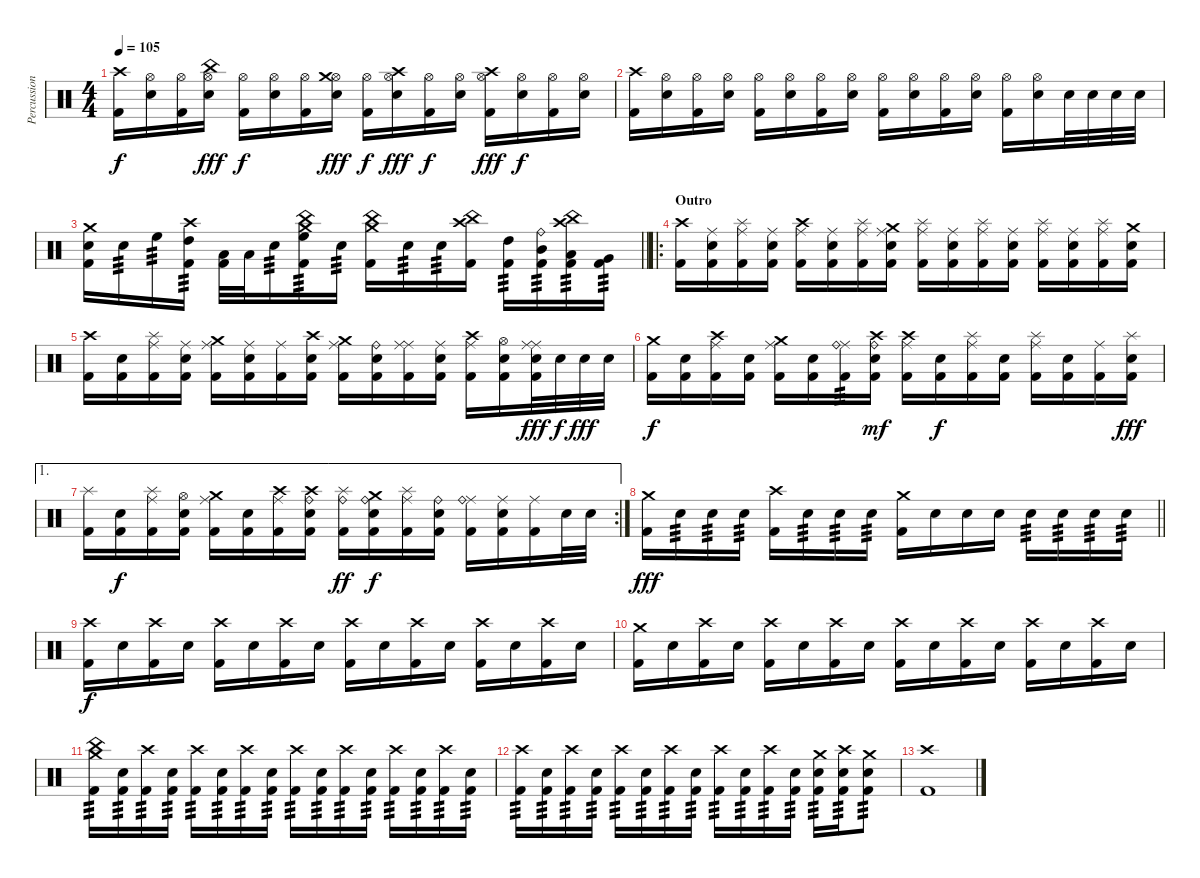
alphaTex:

\track ("Percussions" "Percussion") {instrument percussion}
\staff {score}
\articulation defaults
\ts (4 4)
\tempo 105
\clef neutral
\ks c
("Crash high (hit)" "Kick (hit) 2").16{dy f} ("Hi-Hat (open)" "Electric Snare (hit)").16 ("Hi-Hat (open)" "Kick (hit) 2").16 ("Hi-Hat (open)" "China (hit)" "Electric Snare (hit)").16{dy fff} ("Hi-Hat (open)" "Kick (hit) 2").16{dy f} ("Hi-Hat (open)" "Electric Snare (hit)").16 ("Hi-Hat (open)" "Kick (hit) 2").16 ("Hi-Hat (open)" "Crash medium (hit)" "Electric Snare (hit)").16{dy fff} ("Hi-Hat (open)" "Kick (hit) 2").16{dy f} ("Hi-Hat (open)" "Crash high (hit)" "Electric Snare (hit)").16{dy fff} ("Hi-Hat (open)" "Kick (hit) 2").16{dy f} ("Hi-Hat (open)" "Electric Snare (hit)").16 ("Hi-Hat (open)" "Crash high (hit)" "Kick (hit) 2").16{dy fff} ("Hi-Hat (open)" "Electric Snare (hit)").16{dy f} ("Hi-Hat (open)" "Kick (hit) 2").16 ("Hi-Hat (open)" "Electric Snare (hit)").16 |
("Crash high (hit)" "Kick (hit) 2").16 ("Hi-Hat (open)" "Electric Snare (hit)").16 ("Hi-Hat (open)" "Kick (hit) 2").16 ("Hi-Hat (open)" "Electric Snare (hit)").16 ("Hi-Hat (open)" "Kick (hit) 2").16 ("Hi-Hat (open)" "Electric Snare (hit)").16 ("Hi-Hat (open)" "Kick (hit) 2").16 ("Hi-Hat (open)" "Electric Snare (hit)").16 ("Hi-Hat (open)" "Kick (hit) 2").16 ("Hi-Hat (open)" "Electric Snare (hit)").16 ("Hi-Hat (open)" "Kick (hit) 2").16 ("Hi-Hat (open)" "Electric Snare (hit)").16 ("Hi-Hat (open)" "Kick (hit) 2").16 ("Hi-Hat (open)" "Electric Snare (hit)").16 "Electric Snare (hit)".32 "Electric Snare (hit)".32 "Electric Snare (hit)".32 "Electric Snare (hit)".32 |
\barLineRight lightlight
("Crash medium (hit)" "Electric Snare (hit)" "Kick (hit) 2").16 "Electric Snare (hit)".16{tp 3} "High Floor Tom (hit)".16{tp 3} ("Crash high (hit)" "High Tom (hit)" "Kick (hit) 2").16{tp 3} ("Low Tom (hit)" "Kick (hit) 2").32 "Low Tom (hit)".32 "Electric Snare (hit)".16{tp 3} ("Crash medium (hit)" "China (hit)" "High Floor Tom (hit)" "Kick (hit) 2").16{tp 3} "Electric Snare (hit)".16{tp 3} ("Crash medium (hit)" "China (hit)" "Kick (hit) 2").16 "Electric Snare (hit)".16{tp 3} "Electric Snare (hit)".16{tp 3} ("Crash high (hit)" "China (hit)" "Kick (hit) 2").16 ("High Tom (hit)" "Kick (hit) 2").16{tp 3} ("Ride (bell)" "Mid Tom (hit)" "Kick (hit) 2").16{tp 3} ("Crash high (hit)" "China (hit)" "Low Tom (hit)" "Kick (hit) 2").16{tp 3} ("Very Low Tom (hit)" "Kick (hit) 2").16{tp 3} |
\ro
\section ("" "Outro")
("Crash high (hit)" "Kick (hit) 2").16 ("Ride (middle)" "Electric Snare (hit)" "Kick (hit) 2").16 ("Ride (middle)" "Splash (hit)" "Kick (hit) 2").16 ("Ride (middle)" "Electric Snare (hit)" "Kick (hit) 2").16 ("Ride (middle)" "Crash high (hit)" "Kick (hit) 2").16 ("Ride (middle)" "Electric Snare (hit)" "Kick (hit) 2").16 ("Ride (middle)" "Splash (hit)" "Kick (hit) 2").16 ("Ride (middle)" "Crash medium (hit)" "Electric Snare (hit)" "Kick (hit) 2").16 ("Ride (middle)" "Splash (hit)" "Kick (hit) 2").16 ("Ride (middle)" "Electric Snare (hit)" "Kick (hit) 2").16 ("Ride (middle)" "Splash (hit)" "Kick (hit) 2").16 ("Ride (middle)" "Electric Snare (hit)" "Kick (hit) 2").16 ("Ride (middle)" "Splash (hit)" "Kick (hit) 2").16 ("Ride (middle)" "Electric Snare (hit)" "Kick (hit) 2").16 ("Ride (middle)" "Splash (hit)" "Kick (hit) 2").16 ("Crash medium (hit)" "Electric Snare (hit)" "Kick (hit) 2").16 |
("Crash high (hit)" "Kick (hit) 2").16 ("Electric Snare (hit)" "Kick (hit) 2").16 ("Ride (middle)" "Splash (hit)" "Kick (hit) 2").16 ("Ride (middle)" "Electric Snare (hit)" "Kick (hit) 2").16 ("Crash medium (hit)" "Ride (middle)" "Kick (hit) 2").16 ("Ride (middle)" "Electric Snare (hit)" "Kick (hit) 2").16 ("Ride (middle)" "Kick (hit) 2").16 ("Crash high (hit)" "Electric Snare (hit)" "Kick (hit) 2").16 ("Crash medium (hit)" "Ride (middle)" "Kick (hit) 2").16 ("Ride (bell)" "Electric Snare (hit)" "Kick (hit) 2").16 ("Ride (middle)" "Ride (middle)" "Kick (hit) 2").16 ("Ride (middle)" "Electric Snare (hit)" "Kick (hit) 2").16 ("Crash high (hit)" "Ride (middle)" "Kick (hit) 2").16 ("Hi-Hat (open)" "Electric Snare (hit)" "Kick (hit) 2").16 ("Ride (middle)" "Ride (middle)" "Electric Snare (hit)" "Kick (hit) 2").32{dy fff} "Electric Snare (hit)".32{dy f} "Electric Snare (hit)".32{dy fff} "Electric Snare (hit)".32 |
("Crash medium (hit)" "Kick (hit) 2").16{dy f} ("Electric Snare (hit)" "Kick (hit) 2").16 ("Ride (middle)" "Crash high (hit)" "Kick (hit) 2").16 ("Electric Snare (hit)" "Kick (hit) 2").16 ("Ride (middle)" "Crash medium (hit)" "Kick (hit) 2").16 ("Electric Snare (hit)" "Kick (hit) 2").16 ("Ride (middle)" "Ride (bell)" "Kick (hit) 2").16{tp 3} ("Crash high (hit)" "Ride (bell)" "Electric Snare (hit)" "Kick (hit) 2").16{dy mf} ("Crash high (hit)" "Ride (middle)" "Kick (hit) 2").16 ("Electric Snare (hit)" "Kick (hit) 2").16{dy f} ("Ride (middle)" "Splash (hit)" "Kick (hit) 2").16 ("Electric Snare (hit)" "Kick (hit) 2").16 ("Ride (middle)" "Splash (hit)" "Kick (hit) 2").16 ("Electric Snare (hit)" "Kick (hit) 2").16 ("Ride (middle)" "Kick (hit) 2").16 ("Splash (hit)" "Electric Snare (hit)" "Kick (hit) 2").16{dy fff} |
\ae 1
\rc 2
("Splash (hit)" "Kick (hit) 2").16 ("Electric Snare (hit)" "Kick (hit) 2").16{dy f} ("Ride (middle)" "Splash (hit)" "Kick (hit) 2").16 ("Hi-Hat (open)" "Electric Snare (hit)" "Kick (hit) 2").16 ("Ride (middle)" "Crash medium (hit)" "Kick (hit) 2").16 ("Electric Snare (hit)" "Kick (hit) 2").16 ("Ride (middle)" "Crash high (hit)" "Kick (hit) 2").16 ("Crash high (hit)" "Ride (bell)" "Electric Snare (hit)" "Kick (hit) 2").16 ("Splash (hit)" "Ride (bell)" "Kick (hit) 2").16{dy ff} ("Crash medium (hit)" "Ride (bell)" "Electric Snare (hit)" "Kick (hit) 2").16{dy f} ("Ride (middle)" "Splash (hit)" "Kick (hit) 2").16 ("Ride (bell)" "Electric Snare (hit)" "Kick (hit) 2").16 ("Ride (middle)" "Ride (bell)" "Kick (hit) 2").16 ("Ride (middle)" "Electric Snare (hit)" "Kick (hit) 2").16 ("Ride (middle)" "Kick (hit) 2").16 "Electric Snare (hit)".32 "Electric Snare (hit)".32 |
\barLineRight lightlight
("Crash medium (hit)" "Kick (hit) 2").16{dy fff} "Electric Snare (hit)".16{tp 3} "Electric Snare (hit)".16{tp 3} "Electric Snare (hit)".16{tp 3} ("Crash high (hit)" "Kick (hit) 2").16 "Electric Snare (hit)".16{tp 3} "Electric Snare (hit)".16{tp 3} "Electric Snare (hit)".16{tp 3} ("Crash medium (hit)" "Kick (hit) 2").16 "Electric Snare (hit)".16 "Electric Snare (hit)".16 "Electric Snare (hit)".16 "Electric Snare (hit)".16{tp 3} "Electric Snare (hit)".16{tp 3} "Electric Snare (hit)".16{tp 3} "Electric Snare (hit)".16{tp 3} |
\section ("" "")
("Crash high (hit)" "Kick (hit) 2").16{dy f} "Electric Snare (hit)".16 ("Crash high (hit)" "Kick (hit) 2").16 "Electric Snare (hit)".16 ("Crash high (hit)" "Kick (hit) 2").16 "Electric Snare (hit)".16 ("Crash high (hit)" "Kick (hit) 2").16 "Electric Snare (hit)".16 ("Crash high (hit)" "Kick (hit) 2").16 "Electric Snare (hit)".16 ("Crash high (hit)" "Kick (hit) 2").16 "Electric Snare (hit)".16 ("Crash high (hit)" "Kick (hit) 2").16 "Electric Snare (hit)".16 ("Crash high (hit)" "Kick (hit) 2").16 "Electric Snare (hit)".16 |
("Crash medium (hit)" "Kick (hit) 2").16 "Electric Snare (hit)".16 ("Crash high (hit)" "Kick (hit) 2").16 "Electric Snare (hit)".16 ("Crash high (hit)" "Kick (hit) 2").16 "Electric Snare (hit)".16 ("Crash high (hit)" "Kick (hit) 2").16 "Electric Snare (hit)".16 ("Crash high (hit)" "Kick (hit) 2").16 "Electric Snare (hit)".16 ("Crash high (hit)" "Kick (hit) 2").16 "Electric Snare (hit)".16 ("Crash high (hit)" "Kick (hit) 2").16 "Electric Snare (hit)".16 ("Crash high (hit)" "Kick (hit) 2").16 "Electric Snare (hit)".16 |
("Crash medium (hit)" "China (hit)" "Kick (hit) 2").16{tp 3} ("Electric Snare (hit)" "Kick (hit) 2").16{tp 3} ("Crash high (hit)" "Kick (hit) 2").16{tp 3} ("Electric Snare (hit)" "Kick (hit) 2").16{tp 3} ("Crash high (hit)" "Kick (hit) 2").16{tp 3} ("Electric Snare (hit)" "Kick (hit) 2").16{tp 3} ("Crash high (hit)" "Kick (hit) 2").16{tp 3} ("Electric Snare (hit)" "Kick (hit) 2").16{tp 3} ("Crash high (hit)" "Kick (hit) 2").16{tp 3} ("Electric Snare (hit)" "Kick (hit) 2").16{tp 3} ("Crash high (hit)" "Kick (hit) 2").16{tp 3} ("Electric Snare (hit)" "Kick (hit) 2").16{tp 3} ("Crash high (hit)" "Kick (hit) 2").16{tp 3} ("Electric Snare (hit)" "Kick (hit) 2").16{tp 3} ("Crash high (hit)" "Kick (hit) 2").16{tp 3} ("Electric Snare (hit)" "Kick (hit) 2").16{tp 3} |
("Crash high (hit)" "Kick (hit) 2").16{tp 3} ("Electric Snare (hit)" "Kick (hit) 2").16{tp 3} ("Crash high (hit)" "Kick (hit) 2").16{tp 3} ("Electric Snare (hit)" "Kick (hit) 2").16{tp 3} ("Crash high (hit)" "Kick (hit) 2").16{tp 3} ("Electric Snare (hit)" "Kick (hit) 2").16{tp 3} ("Crash high (hit)" "Kick (hit) 2").16{tp 3} ("Electric Snare (hit)" "Kick (hit) 2").16{tp 3} ("Crash high (hit)" "Kick (hit) 2").16{tp 3} ("Electric Snare (hit)" "Kick (hit) 2").16{tp 3} ("Crash high (hit)" "Kick (hit) 2").16{tp 3} ("Electric Snare (hit)" "Kick (hit) 2").16{tp 3} ("Crash medium (hit)" "Electric Snare (hit)" "Kick (hit) 2").16{tp 3} ("Crash high (hit)" "Electric Snare (hit)" "Kick (hit) 2").16{tp 3} ("Crash medium (hit)" "Electric Snare (hit)" "Kick (hit) 2").8{tp 3} |
("Crash high (hit)" "Kick (hit) 2").1
